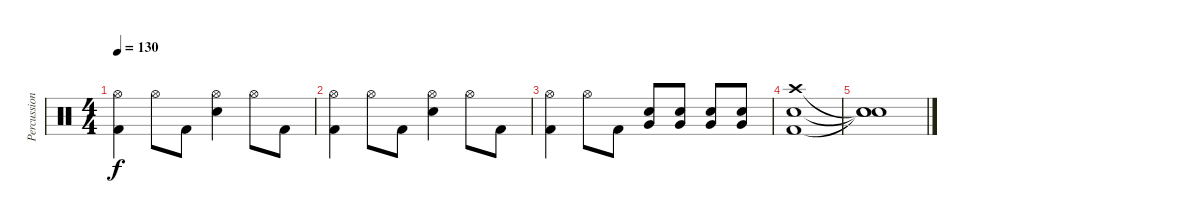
\track ("Percussion" "Percussion") {instrument percussion}
\staff {score}
\articulation defaults
\ts (4 4)
\tempo 130
\clef neutral
\ks c
("Hi-Hat (open)" "Kick (hit) 2").4{dy f} "Hi-Hat (open)".8 "Kick (hit) 2".8 ("Hi-Hat (open)" "Electric Snare (hit)").4 "Hi-Hat (open)".8 "Kick (hit) 2".8 |
("Hi-Hat (open)" "Kick (hit) 2").4 "Hi-Hat (open)".8 "Kick (hit) 2".8 ("Hi-Hat (open)" "Electric Snare (hit)").4 "Hi-Hat (open)".8 "Kick (hit) 2".8 |
("Hi-Hat (open)" "Kick (hit) 2").4 "Hi-Hat (open)".8 "Kick (hit) 2".8 ("Very Low Tom (hit)" "Electric Snare (hit)").8 ("Very Low Tom (hit)" "Electric Snare (hit)").8 ("Very Low Tom (hit)" "Electric Snare (hit)").8 ("Very Low Tom (hit)" "Electric Snare (hit)").8 |
("Crash high (hit)" "Snare (hit) 2" "Kick (hit) 2").1 |
("Snare (hit)"{t} "Snare (hit)"{t} "Snare (hit)"{t}).1
